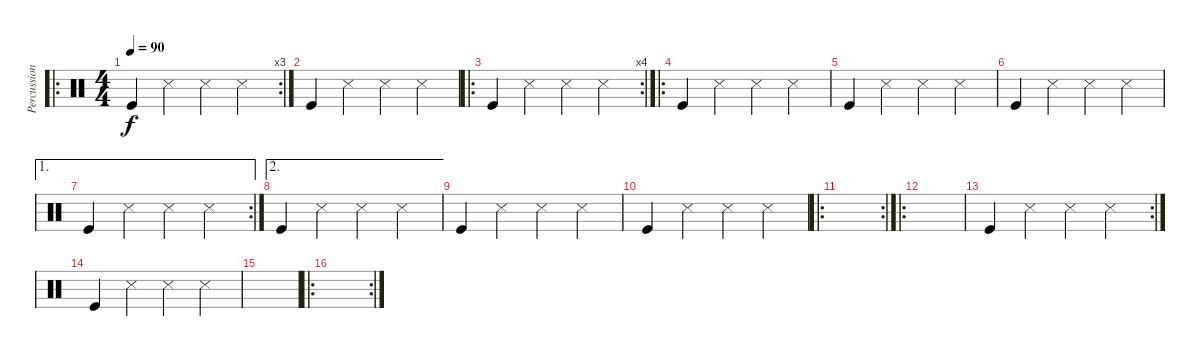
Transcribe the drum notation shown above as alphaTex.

\track ("Percussions" "Percussion") {instrument percussion}
\staff {score}
\articulation defaults
\ro
\rc 3
\ts (4 4)
\tempo 90
\clef neutral
\ks c "Kick (hit)".4{dy f} "Snare (side stick) 3".4 "Snare (side stick) 3".4 "Metronome (hit)".4
|
"Kick (hit)".4 "Snare (side stick) 3".4 "Snare (side stick) 3".4 "Metronome (hit)".4 |
\ro
\rc 4 "Kick (hit)".4 "Snare (side stick) 3".4 "Snare (side stick) 3".4 "Metronome (hit)".4
|
\ro "Kick (hit)".4 "Snare (side stick) 3".4 "Snare (side stick) 3".4 "Metronome (hit)".4
|
"Kick (hit)".4 "Snare (side stick) 3".4 "Snare (side stick) 3".4 "Metronome (hit)".4 |
"Kick (hit)".4 "Snare (side stick) 3".4 "Snare (side stick) 3".4 "Metronome (hit)".4 |
\ae 1
\rc 2 "Kick (hit)".4 "Snare (side stick) 3".4 "Snare (side stick) 3".4 "Metronome (hit)".4
|
\ae 2 "Kick (hit)".4 "Snare (side stick) 3".4 "Snare (side stick) 3".4 "Metronome (hit)".4
|
"Kick (hit)".4 "Snare (side stick) 3".4 "Snare (side stick) 3".4 "Metronome (hit)".4 |
"Kick (hit)".4 "Snare (side stick) 3".4 "Snare (side stick) 3".4 "Metronome (hit)".4 |
\ro
\rc 2
|
\ro
|
\rc 2 "Kick (hit)".4 "Snare (side stick) 3".4 "Snare (side stick) 3".4 "Metronome (hit)".4
|
"Kick (hit)".4 "Snare (side stick) 3".4 "Snare (side stick) 3".4 "Metronome (hit)".4 |
|
\ro
\rc 2
